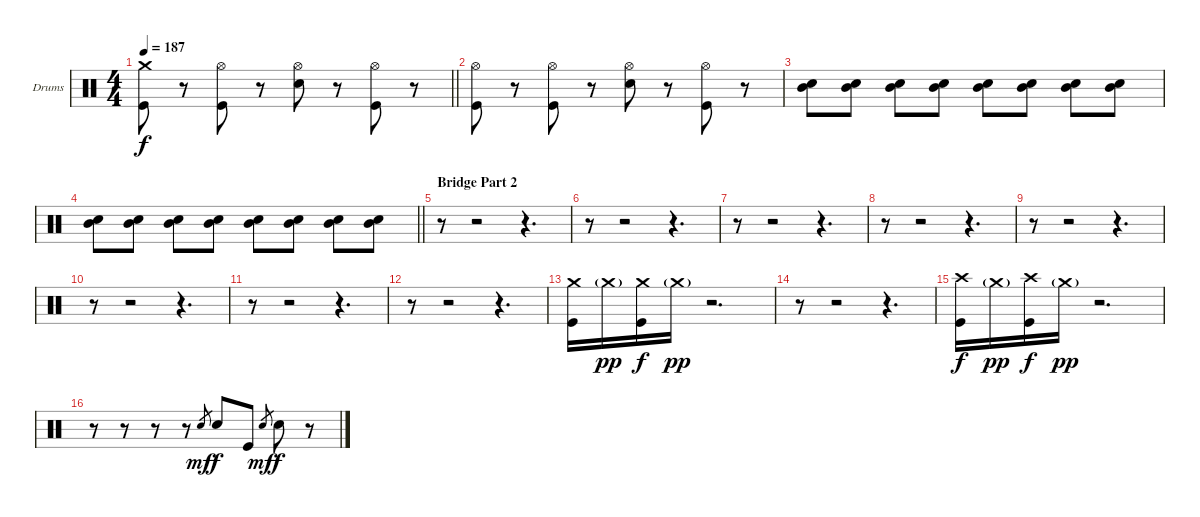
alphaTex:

\bracketExtendMode groupsimilarinstruments
\firstSystemTrackNameOrientation horizontal
\otherSystemsTrackNameOrientation horizontal
\track ("Rian Dawson" "Drums") {instrument percussion}
\staff {score}
\articulation defaults
\ts (4 4)
\tempo 187
\clef neutral
\barLineRight lightlight
\ks c
("Crash medium (hit)" "Kick (hit)").8{dy f} r.8 ("Hi-Hat (open)" "Kick (hit)").8 r.8 ("Hi-Hat (open)" "Snare (hit) 2").8 r.8 ("Hi-Hat (open)" "Kick (hit)").8 r.8 |
("Hi-Hat (open)" "Kick (hit)").8 r.8 ("Hi-Hat (open)" "Kick (hit)").8 r.8 ("Hi-Hat (open)" "Snare (hit) 2").8 r.8 ("Hi-Hat (open)" "Kick (hit)").8 r.8 |
("Snare (hit) 2" "Mid Tom (hit)").8 ("Snare (hit) 2" "Mid Tom (hit)").8 ("Snare (hit) 2" "Mid Tom (hit)").8 ("Snare (hit) 2" "Mid Tom (hit)").8 ("Snare (hit) 2" "Mid Tom (hit)").8 ("Snare (hit) 2" "Mid Tom (hit)").8 ("Snare (hit) 2" "Mid Tom (hit)").8 ("Snare (hit) 2" "Mid Tom (hit)").8 |
\barLineRight lightlight
("Snare (hit) 2" "Mid Tom (hit)").8 ("Snare (hit) 2" "Mid Tom (hit)").8 ("Snare (hit) 2" "Mid Tom (hit)").8 ("Snare (hit) 2" "Mid Tom (hit)").8 ("Snare (hit) 2" "Mid Tom (hit)").8 ("Snare (hit) 2" "Mid Tom (hit)").8 ("Snare (hit) 2" "Mid Tom (hit)").8 ("Snare (hit) 2" "Mid Tom (hit)").8 |
\section ("" "Bridge Part 2")
r.8 r.2 r.4{d} |
r.8 r.2 r.4{d} |
r.8 r.2 r.4{d} |
r.8 r.2 r.4{d} |
r.8 r.2 r.4{d} |
r.8 r.2 r.4{d} |
r.8 r.2 r.4{d} |
r.8 r.2 r.4{d} |
("Crash medium (hit)" "Kick (hit)").16 "Crash medium (hit)"{g}.16{dy pp} ("Crash medium (hit)" "Kick (hit)").16{dy f} "Crash medium (hit)"{g}.16{dy pp} r.2{d} |
r.8 r.2 r.4{d} |
("Crash high (hit)" "Kick (hit)").16{dy f} "Crash medium (hit)"{g}.16{dy pp} ("Crash high (hit)" "Kick (hit)").16{dy f} "Crash medium (hit)"{g}.16{dy pp} r.2{d} |
r.8 r.8 r.8 r.8 "Snare (hit) 2".8{gr dy mf} "Snare (hit) 2".8{dy f} "Kick (hit)".8 "Snare (hit) 2".8{gr dy mf} "Snare (hit) 2".8{dy f} r.8
